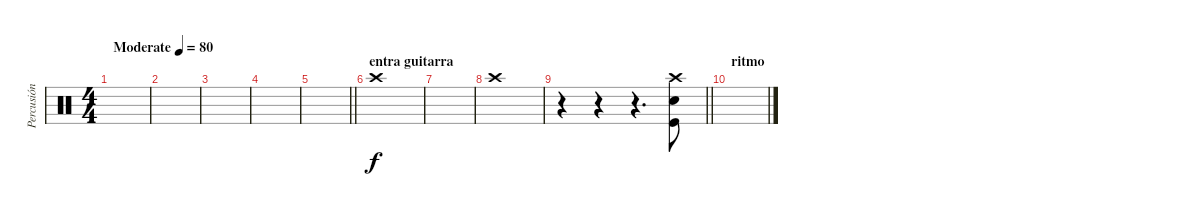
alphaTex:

\track ("Percusión" "Percusión") {instrument percussion}
\staff {score}
\articulation defaults
\ts (4 4)
\tempo (80 "Moderate")
\clef neutral
\ks c
|
|
|
|
\barLineRight lightlight
|
\section ("" "entra guitarra")
"Crash high (hit)".1 |
|
"Crash high (hit)".1 |
\barLineRight lightlight
r.4 r.4 r.4{d} ("Snare (hit) 2" "Crash high (hit)" "Kick (hit)").8 |
\section ("" "ritmo")
